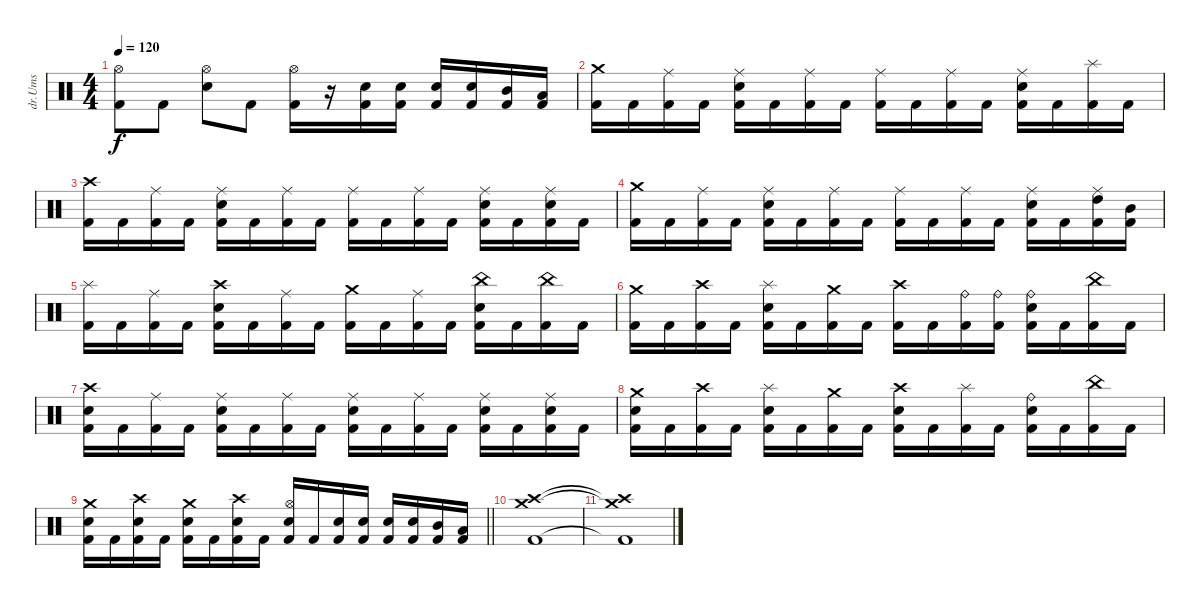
\track ("dr.Ums" "dr.Ums") {instrument percussion}
\staff {score}
\articulation defaults
\ts (4 4)
\tempo 120
\clef neutral
\ks c
("Kick (hit) 2" "Hi-Hat (open)").8{dy f} "Kick (hit) 2".8 ("Snare (hit) 2" "Hi-Hat (open)").8 "Kick (hit) 2".8 ("Kick (hit) 2" "Hi-Hat (open)").16 r.16 ("Snare (hit) 2" "Kick (hit) 2").16 ("Snare (hit) 2" "Kick (hit) 2").16 ("Snare (hit) 2" "Kick (hit) 2").16 ("Snare (hit) 2" "Kick (hit) 2").16 ("Mid Tom (hit)" "Kick (hit) 2").16 ("Low Tom (hit)" "Kick (hit) 2").16 |
("Kick (hit) 2" "Crash medium (hit)").16 "Kick (hit) 2".16 ("Kick (hit) 2" "Ride (middle)").16 "Kick (hit) 2".16 ("Kick (hit) 2" "Ride (middle)" "Snare (hit) 2").16 "Kick (hit) 2".16 ("Kick (hit) 2" "Ride (middle)").16 "Kick (hit) 2".16 ("Kick (hit) 2" "Ride (middle)").16 "Kick (hit) 2".16 ("Kick (hit) 2" "Ride (middle)").16 "Kick (hit) 2".16 ("Kick (hit) 2" "Ride (middle)" "Snare (hit) 2").16 "Kick (hit) 2".16 ("Kick (hit) 2" "Splash (hit)").16 "Kick (hit) 2".16 |
("Kick (hit) 2" "Crash high (hit)").16 "Kick (hit) 2".16 ("Kick (hit) 2" "Ride (middle)").16 "Kick (hit) 2".16 ("Kick (hit) 2" "Ride (middle)" "Snare (hit) 2").16 "Kick (hit) 2".16 ("Kick (hit) 2" "Ride (middle)").16 "Kick (hit) 2".16 ("Kick (hit) 2" "Ride (middle)").16 "Kick (hit) 2".16 ("Kick (hit) 2" "Ride (middle)").16 "Kick (hit) 2".16 ("Kick (hit) 2" "Ride (middle)" "Snare (hit) 2").16 "Kick (hit) 2".16 ("Kick (hit) 2" "Ride (middle)" "Snare (hit) 2").16 "Kick (hit) 2".16 |
("Kick (hit) 2" "Crash medium (hit)").16 "Kick (hit) 2".16 ("Kick (hit) 2" "Ride (middle)").16 "Kick (hit) 2".16 ("Kick (hit) 2" "Ride (middle)" "Snare (hit) 2").16 "Kick (hit) 2".16 ("Kick (hit) 2" "Ride (middle)").16 "Kick (hit) 2".16 ("Kick (hit) 2" "Ride (middle)").16 "Kick (hit) 2".16 ("Kick (hit) 2" "Ride (middle)").16 "Kick (hit) 2".16 ("Kick (hit) 2" "Ride (middle)" "Snare (hit) 2").16 "Kick (hit) 2".16 ("Kick (hit) 2" "Ride (middle)" "High Tom (hit)").16 ("Kick (hit) 2" "Mid Tom (hit)").16 |
("Kick (hit) 2" "Splash (hit)").16 "Kick (hit) 2".16 ("Kick (hit) 2" "Ride (middle)").16 "Kick (hit) 2".16 ("Kick (hit) 2" "Crash high (hit)" "Snare (hit) 2").16 "Kick (hit) 2".16 ("Kick (hit) 2" "Ride (middle)").16 "Kick (hit) 2".16 ("Kick (hit) 2" "Crash medium (hit)").16 "Kick (hit) 2".16 ("Kick (hit) 2" "Ride (middle)").16 "Kick (hit) 2".16 ("Kick (hit) 2" "China (hit)" "Snare (hit) 2").16 "Kick (hit) 2".16 ("Kick (hit) 2" "China (hit)").16 "Kick (hit) 2".16 |
("Kick (hit) 2" "Crash medium (hit)").16 "Kick (hit) 2".16 ("Kick (hit) 2" "Crash high (hit)").16 "Kick (hit) 2".16 ("Kick (hit) 2" "Splash (hit)" "Snare (hit) 2").16 "Kick (hit) 2".16 ("Kick (hit) 2" "Crash medium (hit)").16 "Kick (hit) 2".16 ("Kick (hit) 2" "Crash high (hit)").16 "Kick (hit) 2".16 ("Kick (hit) 2" "Ride (bell)").16 ("Kick (hit) 2" "Ride (bell)").16 ("Kick (hit) 2" "Ride (bell)" "Snare (hit) 2").16 "Kick (hit) 2".16 ("Kick (hit) 2" "China (hit)").16 "Kick (hit) 2".16 |
("Kick (hit) 2" "Snare (hit) 2" "Crash high (hit)").16 "Kick (hit) 2".16 ("Kick (hit) 2" "Ride (middle)").16 "Kick (hit) 2".16 ("Kick (hit) 2" "Ride (middle)" "Snare (hit) 2").16 "Kick (hit) 2".16 ("Kick (hit) 2" "Ride (middle)").16 "Kick (hit) 2".16 ("Kick (hit) 2" "Snare (hit) 2" "Ride (middle)").16 "Kick (hit) 2".16 ("Kick (hit) 2" "Ride (middle)").16 "Kick (hit) 2".16 ("Kick (hit) 2" "Ride (middle)" "Snare (hit) 2").16 "Kick (hit) 2".16 ("Kick (hit) 2" "Snare (hit) 2" "Ride (middle)").16 "Kick (hit) 2".16 |
("Kick (hit) 2" "Snare (hit) 2" "Crash medium (hit)").16 "Kick (hit) 2".16 ("Kick (hit) 2" "Crash high (hit)").16 "Kick (hit) 2".16 ("Kick (hit) 2" "Splash (hit)" "Snare (hit) 2").16 "Kick (hit) 2".16 ("Kick (hit) 2" "Crash medium (hit)").16 "Kick (hit) 2".16 ("Kick (hit) 2" "Snare (hit) 2" "Crash high (hit)").16 "Kick (hit) 2".16 ("Kick (hit) 2" "Splash (hit)").16 "Kick (hit) 2".16 ("Kick (hit) 2" "Ride (bell)" "Snare (hit) 2").16 "Kick (hit) 2".16 ("Kick (hit) 2" "China (hit)").16 "Kick (hit) 2".16 |
\barLineRight lightlight
("Kick (hit) 2" "Snare (hit) 2" "Crash medium (hit)").16 "Kick (hit) 2".16 ("Kick (hit) 2" "Snare (hit) 2" "Crash high (hit)").16 "Kick (hit) 2".16 ("Kick (hit) 2" "Snare (hit) 2" "Crash medium (hit)").16 "Kick (hit) 2".16 ("Kick (hit) 2" "Snare (hit) 2" "Crash high (hit)").16 "Kick (hit) 2".16 ("Kick (hit) 2" "Snare (hit) 2" "Hi-Hat (open)").16 "Kick (hit) 2".16 ("Snare (hit) 2" "Kick (hit) 2").16 ("Snare (hit) 2" "Kick (hit) 2").16 ("Snare (hit) 2" "Kick (hit) 2").16 ("Snare (hit) 2" "Kick (hit) 2").16 ("Mid Tom (hit)" "Kick (hit) 2").16 ("Low Tom (hit)" "Kick (hit) 2").16 |
("Crash medium (hit)" "Crash high (hit)" "Kick (hit) 2").1 |
("Crash medium (hit)"{t} "Crash high (hit)"{t} "Kick (hit) 2"{t}).1
